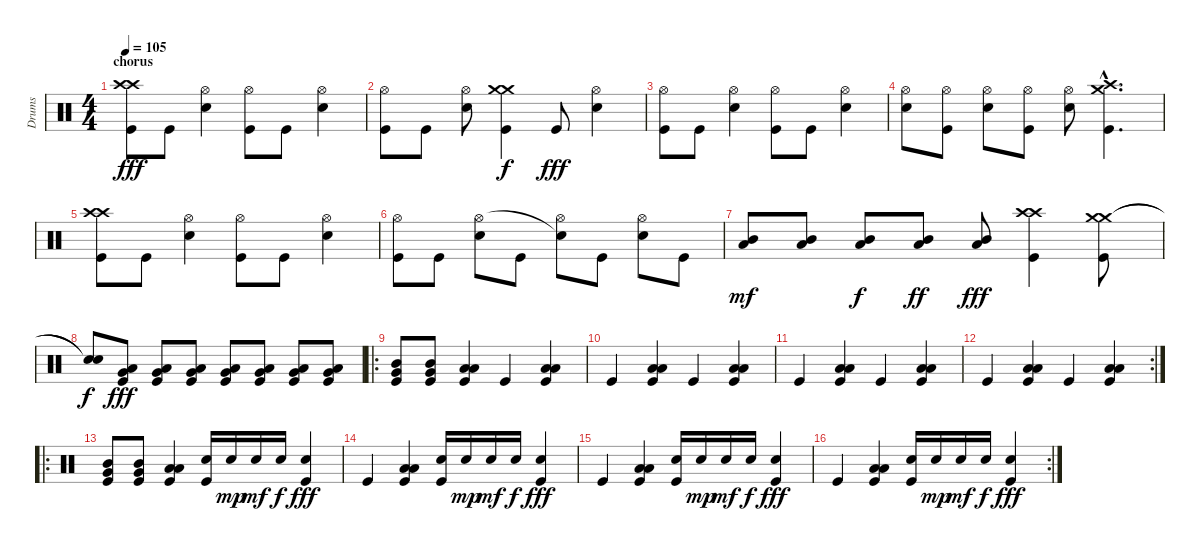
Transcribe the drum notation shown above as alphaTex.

\track ("Drums" "Drums") {instrument percussion}
\staff {score}
\articulation defaults
\ts (4 4)
\section ("" "chorus")
\tempo 105
\clef neutral
\ks c
("Crash high (hit)" "Crash high (hit)" "Kick (hit)").8{dy fff} "Kick (hit)".8 ("Electric Snare (hit)" "Hi-Hat (open)").4 ("Hi-Hat (open)" "Kick (hit)").8 "Kick (hit)".8 ("Electric Snare (hit)" "Hi-Hat (open)").4 |
("Hi-Hat (open)" "Kick (hit)").8 "Kick (hit)".8 ("Electric Snare (hit)" "Hi-Hat (open)").8 ("Crash medium (hit)" "Crash medium (hit)" "Kick (hit)").4{dy f} "Kick (hit)".8{dy fff} ("Electric Snare (hit)" "Hi-Hat (open)").4 |
("Hi-Hat (open)" "Kick (hit)").8 "Kick (hit)".8 ("Electric Snare (hit)" "Hi-Hat (open)").4 ("Hi-Hat (open)" "Kick (hit)").8 "Kick (hit)".8 ("Electric Snare (hit)" "Hi-Hat (open)").4 |
("Electric Snare (hit)" "Hi-Hat (open)").8 ("Hi-Hat (open)" "Kick (hit)").8 ("Electric Snare (hit)" "Hi-Hat (open)").8 ("Hi-Hat (open)" "Kick (hit)").8 ("Electric Snare (hit)" "Hi-Hat (open)").8 ("Crash high (hit)"{hac} "Crash medium (hit)"{hac} "Kick (hit)"{hac}).4{d} |
("Crash high (hit)" "Crash high (hit)" "Kick (hit)").8 "Kick (hit)".8 ("Electric Snare (hit)" "Hi-Hat (open)").4 ("Hi-Hat (open)" "Kick (hit)").8 "Kick (hit)".8 ("Electric Snare (hit)" "Hi-Hat (open)").4 |
("Hi-Hat (open)" "Kick (hit)").8 "Kick (hit)".8 ("Electric Snare (hit)" "Hi-Hat (open)").8 "Kick (hit)".8 ("Hi-Hat (open)" "Snare (hit)"{t}).8 "Kick (hit)".8 ("Electric Snare (hit)" "Hi-Hat (open)").8 "Kick (hit)".8 |
("Mid Tom (hit)" "Low Tom (hit)").8{dy mf} ("Mid Tom (hit)" "Low Tom (hit)").8 ("Mid Tom (hit)" "Low Tom (hit)").8{dy f} ("Mid Tom (hit)" "Low Tom (hit)").8{dy ff} ("Mid Tom (hit)" "Low Tom (hit)").8{dy fff} ("Crash high (hit)" "Crash high (hit)" "Kick (hit)").4 ("Crash medium (hit)" "Crash medium (hit)" "Kick (hit)").8 |
("Snare (hit)"{t} "Snare (hit)"{t}).8{dy f} ("Low Tom (hit)" "Very Low Tom (hit)" "Kick (hit)").8{dy fff} ("Low Tom (hit)" "Very Low Tom (hit)" "Kick (hit)").8 ("Low Tom (hit)" "Very Low Tom (hit)" "Kick (hit)").8 ("Low Tom (hit)" "Very Low Tom (hit)" "Kick (hit)").8 ("Low Tom (hit)" "Very Low Tom (hit)" "Kick (hit)").8 ("Low Tom (hit)" "Very Low Tom (hit)" "Kick (hit)").8 ("Low Tom (hit)" "Very Low Tom (hit)" "Kick (hit)").8 |
\ro
("Mid Tom (hit)" "Very Low Tom (hit)" "Kick (hit)").8 ("Mid Tom (hit)" "Very Low Tom (hit)" "Kick (hit)").8 ("Low Tom (hit)" "Low Floor Tom (hit)" "Kick (hit)").4 "Kick (hit)".4 ("Low Tom (hit)" "Low Floor Tom (hit)" "Kick (hit)").4 |
"Kick (hit)".4 ("Low Tom (hit)" "Low Floor Tom (hit)" "Kick (hit)").4 "Kick (hit)".4 ("Low Tom (hit)" "Low Floor Tom (hit)" "Kick (hit)").4 |
"Kick (hit)".4 ("Low Tom (hit)" "Low Floor Tom (hit)" "Kick (hit)").4 "Kick (hit)".4 ("Low Tom (hit)" "Low Floor Tom (hit)" "Kick (hit)").4 |
\rc 2 "Kick (hit)".4
("Low Tom (hit)" "Low Floor Tom (hit)" "Kick (hit)").4 "Kick (hit)".4 ("Low Tom (hit)" "Low Floor Tom (hit)" "Kick (hit)").4 |
\ro
("Mid Tom (hit)" "Very Low Tom (hit)" "Kick (hit)").8 ("Mid Tom (hit)" "Very Low Tom (hit)" "Kick (hit)").8 ("Low Tom (hit)" "Low Floor Tom (hit)" "Kick (hit)").4 ("Electric Snare (hit)" "Kick (hit)").16 "Electric Snare (hit)".16{dy mp} "Electric Snare (hit)".16{dy mf} "Electric Snare (hit)".16{dy f} ("Electric Snare (hit)" "Kick (hit)").4{dy fff} |
"Kick (hit)".4 ("Low Tom (hit)" "Low Floor Tom (hit)" "Kick (hit)").4 ("Electric Snare (hit)" "Kick (hit)").16 "Electric Snare (hit)".16{dy mp} "Electric Snare (hit)".16{dy mf} "Electric Snare (hit)".16{dy f} ("Electric Snare (hit)" "Kick (hit)").4{dy fff} |
"Kick (hit)".4 ("Low Tom (hit)" "Low Floor Tom (hit)" "Kick (hit)").4 ("Electric Snare (hit)" "Kick (hit)").16 "Electric Snare (hit)".16{dy mp} "Electric Snare (hit)".16{dy mf} "Electric Snare (hit)".16{dy f} ("Electric Snare (hit)" "Kick (hit)").4{dy fff} |
\rc 2 "Kick (hit)".4
("Low Tom (hit)" "Low Floor Tom (hit)" "Kick (hit)").4 ("Electric Snare (hit)" "Kick (hit)").16 "Electric Snare (hit)".16{dy mp} "Electric Snare (hit)".16{dy mf} "Electric Snare (hit)".16{dy f} ("Electric Snare (hit)" "Kick (hit)").4{dy fff}
